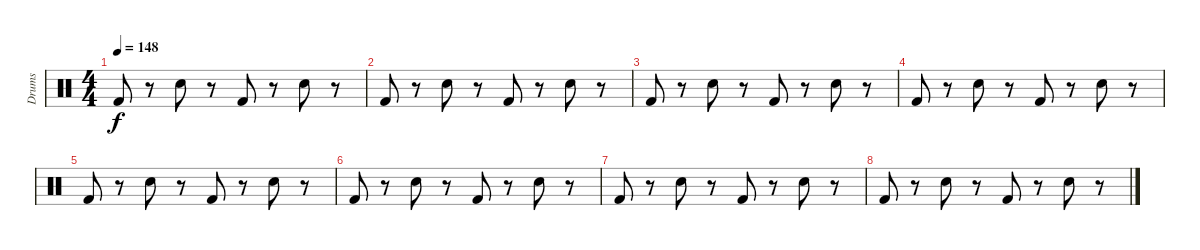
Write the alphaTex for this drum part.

\track ("Drums" "Drums") {instrument percussion}
\staff {score}
\articulation defaults
\ts (4 4)
\tempo 148
\clef neutral
\ks c "Kick (hit) 2".8{dy f}
r.8 "Electric Snare (hit)".8 r.8 "Kick (hit) 2".8 r.8 "Electric Snare (hit)".8 r.8 |
"Kick (hit) 2".8 r.8 "Electric Snare (hit)".8 r.8 "Kick (hit) 2".8 r.8 "Electric Snare (hit)".8 r.8 |
"Kick (hit) 2".8 r.8 "Electric Snare (hit)".8 r.8 "Kick (hit) 2".8 r.8 "Electric Snare (hit)".8 r.8 |
"Kick (hit) 2".8 r.8 "Electric Snare (hit)".8 r.8 "Kick (hit) 2".8 r.8 "Electric Snare (hit)".8 r.8 |
"Kick (hit) 2".8 r.8 "Electric Snare (hit)".8 r.8 "Kick (hit) 2".8 r.8 "Electric Snare (hit)".8 r.8 |
"Kick (hit) 2".8 r.8 "Electric Snare (hit)".8 r.8 "Kick (hit) 2".8 r.8 "Electric Snare (hit)".8 r.8 |
"Kick (hit) 2".8 r.8 "Electric Snare (hit)".8 r.8 "Kick (hit) 2".8 r.8 "Electric Snare (hit)".8 r.8 |
"Kick (hit) 2".8 r.8 "Electric Snare (hit)".8 r.8 "Kick (hit) 2".8 r.8 "Electric Snare (hit)".8 r.8
